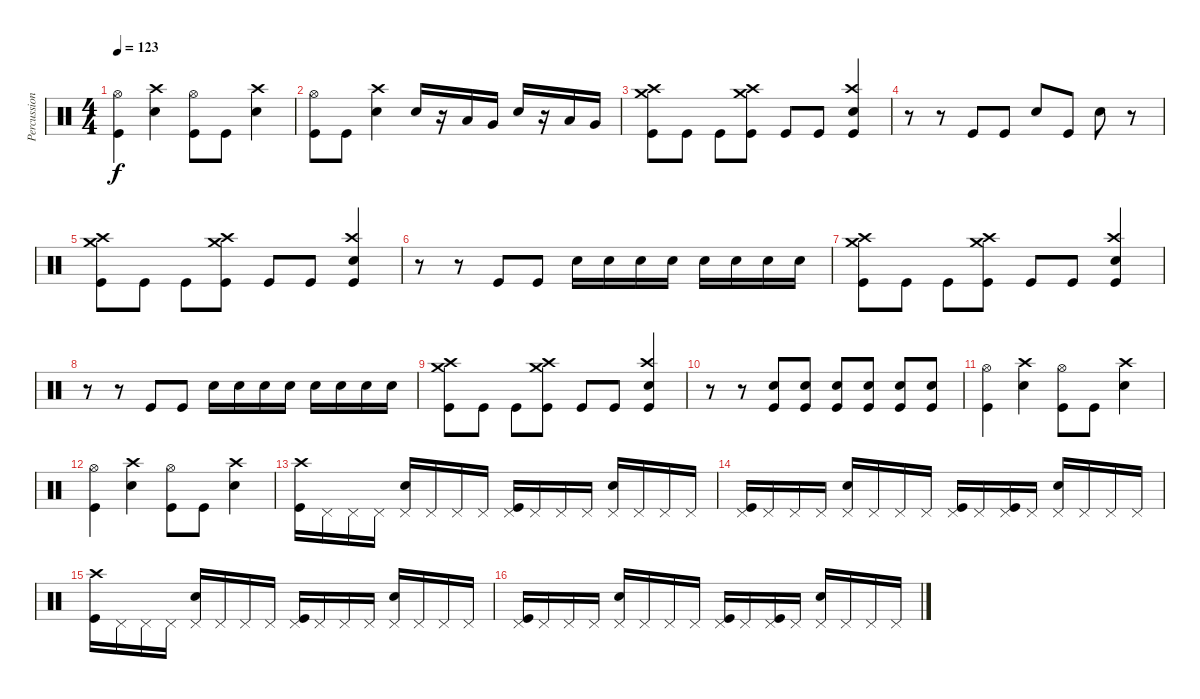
\track ("Percussion" "Percussion") {instrument percussion}
\staff {score}
\articulation defaults
\ts (4 4)
\tempo 123
\clef neutral
\ks c
("Hi-Hat (open)" "Kick (hit)").4{dy f} ("Crash high (hit)" "Snare (hit) 2").4 ("Hi-Hat (open)" "Kick (hit)").8 "Kick (hit)".8 ("Crash high (hit)" "Snare (hit) 2").4 |
("Hi-Hat (open)" "Kick (hit)").8 "Kick (hit)".8 ("Crash high (hit)" "Snare (hit) 2").4 "Snare (hit) 2".16 r.16 "Low Tom (hit)".16 "Very Low Tom (hit)".16 "Snare (hit) 2".16 r.16 "Low Tom (hit)".16 "Very Low Tom (hit)".16 |
("Crash high (hit)" "Crash medium (hit)" "Kick (hit)").8 "Kick (hit)".8 "Kick (hit)".8 ("Crash high (hit)" "Crash medium (hit)" "Kick (hit)").8 "Kick (hit)".8 "Kick (hit)".8 ("Crash high (hit)" "Snare (hit) 2" "Kick (hit)").4 |
r.8 r.8 "Kick (hit)".8 "Kick (hit)".8 "Snare (hit) 2".8 "Kick (hit)".8 "Snare (hit) 2".8 r.8 |
("Crash high (hit)" "Crash medium (hit)" "Kick (hit)").8 "Kick (hit)".8 "Kick (hit)".8 ("Crash high (hit)" "Crash medium (hit)" "Kick (hit)").8 "Kick (hit)".8 "Kick (hit)".8 ("Crash high (hit)" "Snare (hit) 2" "Kick (hit)").4 |
r.8 r.8 "Kick (hit)".8 "Kick (hit)".8 "Snare (hit) 2".16 "Snare (hit) 2".16 "Snare (hit) 2".16 "Snare (hit) 2".16 "Snare (hit) 2".16 "Snare (hit) 2".16 "Snare (hit) 2".16 "Snare (hit) 2".16 |
("Crash high (hit)" "Crash medium (hit)" "Kick (hit)").8 "Kick (hit)".8 "Kick (hit)".8 ("Crash high (hit)" "Crash medium (hit)" "Kick (hit)").8 "Kick (hit)".8 "Kick (hit)".8 ("Crash high (hit)" "Snare (hit) 2" "Kick (hit)").4 |
r.8 r.8 "Kick (hit)".8 "Kick (hit)".8 "Snare (hit) 2".16 "Snare (hit) 2".16 "Snare (hit) 2".16 "Snare (hit) 2".16 "Snare (hit) 2".16 "Snare (hit) 2".16 "Snare (hit) 2".16 "Snare (hit) 2".16 |
("Crash high (hit)" "Crash medium (hit)" "Kick (hit)").8 "Kick (hit)".8 "Kick (hit)".8 ("Crash high (hit)" "Crash medium (hit)" "Kick (hit)").8 "Kick (hit)".8 "Kick (hit)".8 ("Crash high (hit)" "Snare (hit) 2" "Kick (hit)").4 |
r.8 r.8 ("Snare (hit) 2" "Kick (hit)").8 ("Snare (hit) 2" "Kick (hit)").8 ("Snare (hit) 2" "Kick (hit)").8 ("Snare (hit) 2" "Kick (hit)").8 ("Snare (hit) 2" "Kick (hit)").8 ("Snare (hit) 2" "Kick (hit)").8 |
("Hi-Hat (open)" "Kick (hit)").4 ("Crash high (hit)" "Snare (hit) 2").4 ("Hi-Hat (open)" "Kick (hit)").8 "Kick (hit)".8 ("Crash high (hit)" "Snare (hit) 2").4 |
("Hi-Hat (open)" "Kick (hit)").4 ("Crash high (hit)" "Snare (hit) 2").4 ("Hi-Hat (open)" "Kick (hit)").8 "Kick (hit)".8 ("Crash high (hit)" "Snare (hit) 2").4 |
("Crash high (hit)" "Kick (hit)").16 "Pedal Hi-Hat (hit)".16 "Pedal Hi-Hat (hit)".16 "Pedal Hi-Hat (hit)".16 ("Pedal Hi-Hat (hit)" "Snare (hit) 2").16 "Pedal Hi-Hat (hit)".16 "Pedal Hi-Hat (hit)".16 "Pedal Hi-Hat (hit)".16 ("Pedal Hi-Hat (hit)" "Kick (hit)").16 "Pedal Hi-Hat (hit)".16 "Pedal Hi-Hat (hit)".16 "Pedal Hi-Hat (hit)".16 ("Pedal Hi-Hat (hit)" "Snare (hit) 2").16 "Pedal Hi-Hat (hit)".16 "Pedal Hi-Hat (hit)".16 "Pedal Hi-Hat (hit)".16 |
("Pedal Hi-Hat (hit)" "Kick (hit)").16 "Pedal Hi-Hat (hit)".16 "Pedal Hi-Hat (hit)".16 "Pedal Hi-Hat (hit)".16 ("Pedal Hi-Hat (hit)" "Snare (hit) 2").16 "Pedal Hi-Hat (hit)".16 "Pedal Hi-Hat (hit)".16 "Pedal Hi-Hat (hit)".16 ("Pedal Hi-Hat (hit)" "Kick (hit)").16 "Pedal Hi-Hat (hit)".16 ("Pedal Hi-Hat (hit)" "Kick (hit)").16 "Pedal Hi-Hat (hit)".16 ("Pedal Hi-Hat (hit)" "Snare (hit) 2").16 "Pedal Hi-Hat (hit)".16 "Pedal Hi-Hat (hit)".16 "Pedal Hi-Hat (hit)".16 |
("Crash high (hit)" "Kick (hit)").16 "Pedal Hi-Hat (hit)".16 "Pedal Hi-Hat (hit)".16 "Pedal Hi-Hat (hit)".16 ("Pedal Hi-Hat (hit)" "Snare (hit) 2").16 "Pedal Hi-Hat (hit)".16 "Pedal Hi-Hat (hit)".16 "Pedal Hi-Hat (hit)".16 ("Pedal Hi-Hat (hit)" "Kick (hit)").16 "Pedal Hi-Hat (hit)".16 "Pedal Hi-Hat (hit)".16 "Pedal Hi-Hat (hit)".16 ("Pedal Hi-Hat (hit)" "Snare (hit) 2").16 "Pedal Hi-Hat (hit)".16 "Pedal Hi-Hat (hit)".16 "Pedal Hi-Hat (hit)".16 |
("Pedal Hi-Hat (hit)" "Kick (hit)").16 "Pedal Hi-Hat (hit)".16 "Pedal Hi-Hat (hit)".16 "Pedal Hi-Hat (hit)".16 ("Pedal Hi-Hat (hit)" "Snare (hit) 2").16 "Pedal Hi-Hat (hit)".16 "Pedal Hi-Hat (hit)".16 "Pedal Hi-Hat (hit)".16 ("Pedal Hi-Hat (hit)" "Kick (hit)").16 "Pedal Hi-Hat (hit)".16 ("Pedal Hi-Hat (hit)" "Kick (hit)").16 "Pedal Hi-Hat (hit)".16 ("Pedal Hi-Hat (hit)" "Snare (hit) 2").16 "Pedal Hi-Hat (hit)".16 "Pedal Hi-Hat (hit)".16 "Pedal Hi-Hat (hit)".16
